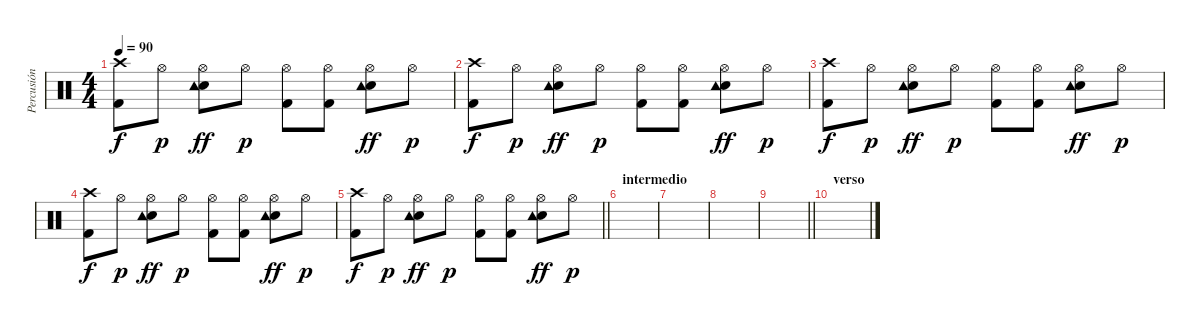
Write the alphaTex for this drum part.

\track ("Percusión" "Percusión") {instrument percussion}
\staff {score}
\articulation defaults
\ts (4 4)
\tempo 90
\clef neutral
\ks c
("Crash high (hit)" "Kick (hit) 2").8{dy f} "Hi-Hat (open)".8{dy p} ("Hi-Hat (open)" "Snare (hit) 2" "Tambourine (hit)").8{dy ff} "Hi-Hat (open)".8{dy p} ("Hi-Hat (open)" "Kick (hit) 2").8 ("Hi-Hat (open)" "Kick (hit) 2").8 ("Hi-Hat (open)" "Snare (hit) 2" "Tambourine (hit)").8{dy ff} "Hi-Hat (open)".8{dy p} |
("Crash high (hit)" "Kick (hit) 2").8{dy f} "Hi-Hat (open)".8{dy p} ("Hi-Hat (open)" "Snare (hit) 2" "Tambourine (hit)").8{dy ff} "Hi-Hat (open)".8{dy p} ("Hi-Hat (open)" "Kick (hit) 2").8 ("Hi-Hat (open)" "Kick (hit) 2").8 ("Hi-Hat (open)" "Snare (hit) 2" "Tambourine (hit)").8{dy ff} "Hi-Hat (open)".8{dy p} |
("Crash high (hit)" "Kick (hit) 2").8{dy f} "Hi-Hat (open)".8{dy p} ("Hi-Hat (open)" "Snare (hit) 2" "Tambourine (hit)").8{dy ff} "Hi-Hat (open)".8{dy p} ("Hi-Hat (open)" "Kick (hit) 2").8 ("Hi-Hat (open)" "Kick (hit) 2").8 ("Hi-Hat (open)" "Snare (hit) 2" "Tambourine (hit)").8{dy ff} "Hi-Hat (open)".8{dy p} |
("Crash high (hit)" "Kick (hit) 2").8{dy f} "Hi-Hat (open)".8{dy p} ("Hi-Hat (open)" "Snare (hit) 2" "Tambourine (hit)").8{dy ff} "Hi-Hat (open)".8{dy p} ("Hi-Hat (open)" "Kick (hit) 2").8 ("Hi-Hat (open)" "Kick (hit) 2").8 ("Hi-Hat (open)" "Snare (hit) 2" "Tambourine (hit)").8{dy ff} "Hi-Hat (open)".8{dy p} |
\barLineRight lightlight
("Crash high (hit)" "Kick (hit) 2").8{dy f} "Hi-Hat (open)".8{dy p} ("Hi-Hat (open)" "Snare (hit) 2" "Tambourine (hit)").8{dy ff} "Hi-Hat (open)".8{dy p} ("Hi-Hat (open)" "Kick (hit) 2").8 ("Hi-Hat (open)" "Kick (hit) 2").8 ("Hi-Hat (open)" "Snare (hit) 2" "Tambourine (hit)").8{dy ff} "Hi-Hat (open)".8{dy p} |
\section ("" "intermedio")
|
|
|
\barLineRight lightlight
|
\section ("" "verso")
